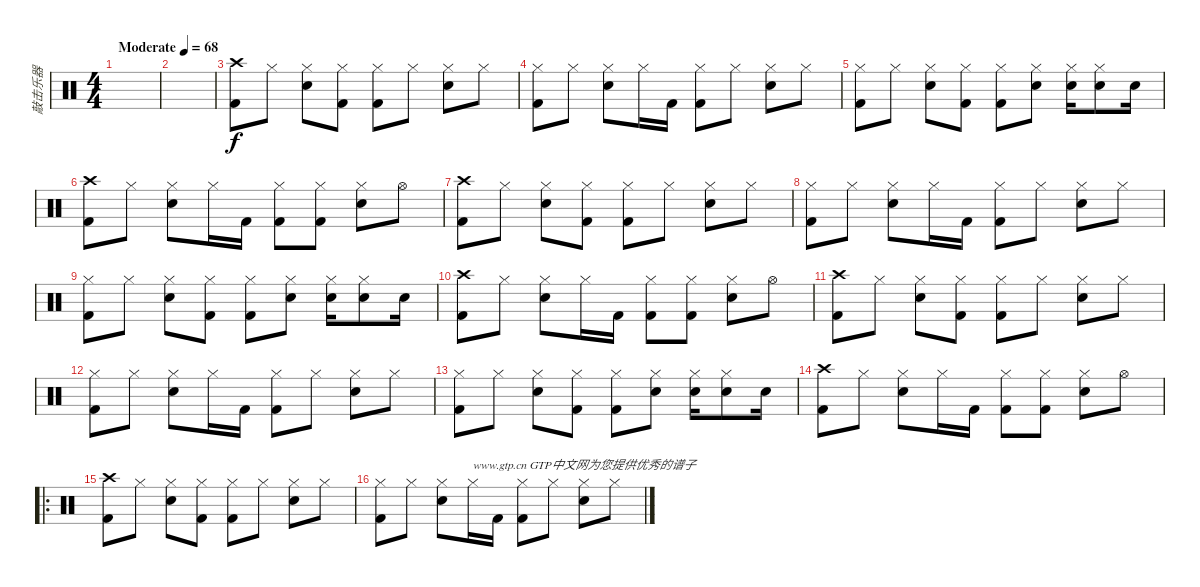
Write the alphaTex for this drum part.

\track ("敲击乐器" "敲击乐器") {instrument percussion}
\staff {score}
\articulation defaults
\ts (4 4)
\tempo (68 "Moderate")
\clef neutral
\ks c
|
|
("Crash high (hit)" "Kick (hit) 2").8 "Hi-Hat (closed)".8 ("Hi-Hat (closed)" "Snare (hit) 2").8 ("Hi-Hat (closed)" "Kick (hit) 2").8 ("Hi-Hat (closed)" "Kick (hit) 2").8 "Hi-Hat (closed)".8 ("Hi-Hat (closed)" "Snare (hit) 2").8 "Hi-Hat (closed)".8 |
("Hi-Hat (closed)" "Kick (hit) 2").8 "Hi-Hat (closed)".8 ("Hi-Hat (closed)" "Snare (hit) 2").8 "Hi-Hat (closed)".16 "Kick (hit) 2".16 ("Hi-Hat (closed)" "Kick (hit) 2").8 "Hi-Hat (closed)".8 ("Hi-Hat (closed)" "Snare (hit) 2").8 "Hi-Hat (closed)".8 |
("Hi-Hat (closed)" "Kick (hit) 2").8 "Hi-Hat (closed)".8 ("Hi-Hat (closed)" "Snare (hit) 2").8 ("Hi-Hat (closed)" "Kick (hit) 2").8 ("Hi-Hat (closed)" "Kick (hit) 2").8 ("Hi-Hat (closed)" "Snare (hit) 2").8 ("Hi-Hat (closed)" "Snare (hit) 2").16 ("Hi-Hat (closed)" "Snare (hit) 2").8 "Snare (hit) 2".16 |
("Crash high (hit)" "Kick (hit) 2").8 "Hi-Hat (closed)".8 ("Hi-Hat (closed)" "Snare (hit) 2").8 "Hi-Hat (closed)".16 "Kick (hit) 2".16 ("Hi-Hat (closed)" "Kick (hit) 2").8 ("Hi-Hat (closed)" "Kick (hit) 2").8 ("Hi-Hat (closed)" "Snare (hit) 2").8 "Hi-Hat (open)".8 |
("Crash high (hit)" "Kick (hit) 2").8 "Hi-Hat (closed)".8 ("Hi-Hat (closed)" "Snare (hit) 2").8 ("Hi-Hat (closed)" "Kick (hit) 2").8 ("Hi-Hat (closed)" "Kick (hit) 2").8 "Hi-Hat (closed)".8 ("Hi-Hat (closed)" "Snare (hit) 2").8 "Hi-Hat (closed)".8 |
("Hi-Hat (closed)" "Kick (hit) 2").8 "Hi-Hat (closed)".8 ("Hi-Hat (closed)" "Snare (hit) 2").8 "Hi-Hat (closed)".16 "Kick (hit) 2".16 ("Hi-Hat (closed)" "Kick (hit) 2").8 "Hi-Hat (closed)".8 ("Hi-Hat (closed)" "Snare (hit) 2").8 "Hi-Hat (closed)".8 |
("Hi-Hat (closed)" "Kick (hit) 2").8 "Hi-Hat (closed)".8 ("Hi-Hat (closed)" "Snare (hit) 2").8 ("Hi-Hat (closed)" "Kick (hit) 2").8 ("Hi-Hat (closed)" "Kick (hit) 2").8 ("Hi-Hat (closed)" "Snare (hit) 2").8 ("Hi-Hat (closed)" "Snare (hit) 2").16 ("Hi-Hat (closed)" "Snare (hit) 2").8 "Snare (hit) 2".16 |
("Crash high (hit)" "Kick (hit) 2").8 "Hi-Hat (closed)".8 ("Hi-Hat (closed)" "Snare (hit) 2").8 "Hi-Hat (closed)".16 "Kick (hit) 2".16 ("Hi-Hat (closed)" "Kick (hit) 2").8 ("Hi-Hat (closed)" "Kick (hit) 2").8 ("Hi-Hat (closed)" "Snare (hit) 2").8 "Hi-Hat (open)".8 |
("Crash high (hit)" "Kick (hit) 2").8 "Hi-Hat (closed)".8 ("Hi-Hat (closed)" "Snare (hit) 2").8 ("Hi-Hat (closed)" "Kick (hit) 2").8 ("Hi-Hat (closed)" "Kick (hit) 2").8 "Hi-Hat (closed)".8 ("Hi-Hat (closed)" "Snare (hit) 2").8 "Hi-Hat (closed)".8 |
("Hi-Hat (closed)" "Kick (hit) 2").8 "Hi-Hat (closed)".8 ("Hi-Hat (closed)" "Snare (hit) 2").8 "Hi-Hat (closed)".16 "Kick (hit) 2".16 ("Hi-Hat (closed)" "Kick (hit) 2").8 "Hi-Hat (closed)".8 ("Hi-Hat (closed)" "Snare (hit) 2").8 "Hi-Hat (closed)".8 |
("Hi-Hat (closed)" "Kick (hit) 2").8 "Hi-Hat (closed)".8 ("Hi-Hat (closed)" "Snare (hit) 2").8 ("Hi-Hat (closed)" "Kick (hit) 2").8 ("Hi-Hat (closed)" "Kick (hit) 2").8 ("Hi-Hat (closed)" "Snare (hit) 2").8 ("Hi-Hat (closed)" "Snare (hit) 2").16 ("Hi-Hat (closed)" "Snare (hit) 2").8 "Snare (hit) 2".16 |
("Crash high (hit)" "Kick (hit) 2").8 "Hi-Hat (closed)".8 ("Hi-Hat (closed)" "Snare (hit) 2").8 "Hi-Hat (closed)".16 "Kick (hit) 2".16 ("Hi-Hat (closed)" "Kick (hit) 2").8 ("Hi-Hat (closed)" "Kick (hit) 2").8 ("Hi-Hat (closed)" "Snare (hit) 2").8 "Hi-Hat (open)".8 |
\ro
("Crash high (hit)" "Kick (hit) 2").8 "Hi-Hat (closed)".8 ("Hi-Hat (closed)" "Snare (hit) 2").8 ("Hi-Hat (closed)" "Kick (hit) 2").8 ("Hi-Hat (closed)" "Kick (hit) 2").8 "Hi-Hat (closed)".8 ("Hi-Hat (closed)" "Snare (hit) 2").8 "Hi-Hat (closed)".8 |
("Hi-Hat (closed)" "Kick (hit) 2").8 "Hi-Hat (closed)".8 ("Hi-Hat (closed)" "Snare (hit) 2").8 "Hi-Hat (closed)".16{txt "www.gtp.cn GTP中文网为您提供优秀的谱子"} "Kick (hit) 2".16 ("Hi-Hat (closed)" "Kick (hit) 2").8 "Hi-Hat (closed)".8 ("Hi-Hat (closed)" "Snare (hit) 2").8 "Hi-Hat (closed)".8
